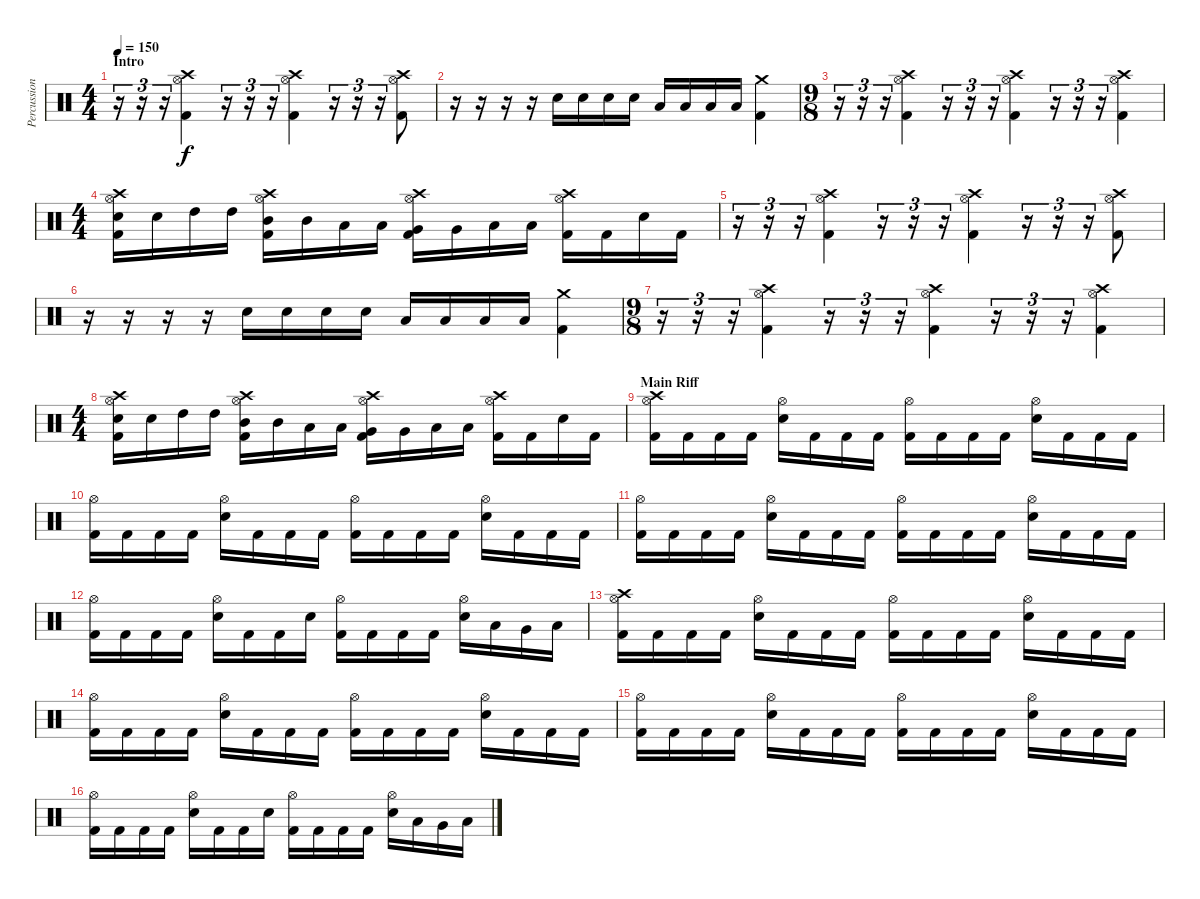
\track ("Percussions" "Percussion") {instrument percussion}
\staff {score}
\articulation defaults
\ts (4 4)
\section ("" "Intro")
\tempo 150
\clef neutral
\ks c
r.16{tu (3 2) dy f} r.16{tu (3 2)} r.16{tu (3 2)} ("Crash high (hit)" "Hi-Hat (open)" "Kick (hit) 2").4 r.16{tu (3 2)} r.16{tu (3 2)} r.16{tu (3 2)} ("Crash high (hit)" "Hi-Hat (open)" "Kick (hit) 2").4 r.16{tu (3 2)} r.16{tu (3 2)} r.16{tu (3 2)} ("Crash high (hit)" "Hi-Hat (open)" "Kick (hit) 2").8 |
r.16 r.16 r.16 r.16 "Electric Snare (hit)".16 "Electric Snare (hit)".16 "Electric Snare (hit)".16 "Electric Snare (hit)".16 "Low Tom (hit)".16 "Low Tom (hit)".16 "Low Tom (hit)".16 "Low Tom (hit)".16 ("Crash medium (hit)" "Kick (hit) 2").4 |
\ts (9 8)
r.16{tu (3 2)} r.16{tu (3 2)} r.16{tu (3 2)} ("Crash high (hit)" "Hi-Hat (open)" "Kick (hit) 2").4 r.16{tu (3 2)} r.16{tu (3 2)} r.16{tu (3 2)} ("Crash high (hit)" "Hi-Hat (open)" "Kick (hit) 2").4 r.16{tu (3 2)} r.16{tu (3 2)} r.16{tu (3 2)} ("Crash high (hit)" "Hi-Hat (open)" "Kick (hit) 2").4 |
\ts (4 4)
("Crash high (hit)" "Hi-Hat (open)" "Electric Snare (hit)" "Kick (hit) 2").16 "Electric Snare (hit)".16 "High Tom (hit)".16 "High Tom (hit)".16 ("Crash high (hit)" "Hi-Hat (open)" "Mid Tom (hit)" "Kick (hit) 2").16 "Mid Tom (hit)".16 "Low Tom (hit)".16 "Low Tom (hit)".16 ("Crash high (hit)" "Hi-Hat (open)" "Very Low Tom (hit)" "Kick (hit) 2").16 "Very Low Tom (hit)".16 "Low Floor Tom (hit)".16 "Low Floor Tom (hit)".16 ("Crash high (hit)" "Hi-Hat (open)" "Kick (hit) 2").16 "Kick (hit) 2".16 "Electric Snare (hit)".16 "Kick (hit) 2".16 |
r.16{tu (3 2)} r.16{tu (3 2)} r.16{tu (3 2)} ("Crash high (hit)" "Hi-Hat (open)" "Kick (hit) 2").4 r.16{tu (3 2)} r.16{tu (3 2)} r.16{tu (3 2)} ("Crash high (hit)" "Hi-Hat (open)" "Kick (hit) 2").4 r.16{tu (3 2)} r.16{tu (3 2)} r.16{tu (3 2)} ("Crash high (hit)" "Hi-Hat (open)" "Kick (hit) 2").8 |
r.16 r.16 r.16 r.16 "Electric Snare (hit)".16 "Electric Snare (hit)".16 "Electric Snare (hit)".16 "Electric Snare (hit)".16 "Low Tom (hit)".16 "Low Tom (hit)".16 "Low Tom (hit)".16 "Low Tom (hit)".16 ("Crash medium (hit)" "Kick (hit) 2").4 |
\ts (9 8)
r.16{tu (3 2)} r.16{tu (3 2)} r.16{tu (3 2)} ("Crash high (hit)" "Hi-Hat (open)" "Kick (hit) 2").4 r.16{tu (3 2)} r.16{tu (3 2)} r.16{tu (3 2)} ("Crash high (hit)" "Hi-Hat (open)" "Kick (hit) 2").4 r.16{tu (3 2)} r.16{tu (3 2)} r.16{tu (3 2)} ("Crash high (hit)" "Hi-Hat (open)" "Kick (hit) 2").4 |
\ts (4 4)
("Crash high (hit)" "Hi-Hat (open)" "Electric Snare (hit)" "Kick (hit) 2").16 "Electric Snare (hit)".16 "High Tom (hit)".16 "High Tom (hit)".16 ("Crash high (hit)" "Hi-Hat (open)" "Mid Tom (hit)" "Kick (hit) 2").16 "Mid Tom (hit)".16 "Low Tom (hit)".16 "Low Tom (hit)".16 ("Crash high (hit)" "Hi-Hat (open)" "Very Low Tom (hit)" "Kick (hit) 2").16 "Very Low Tom (hit)".16 "Low Floor Tom (hit)".16 "Low Floor Tom (hit)".16 ("Crash high (hit)" "Hi-Hat (open)" "Kick (hit) 2").16 "Kick (hit) 2".16 "Electric Snare (hit)".16 "Kick (hit) 2".16 |
\section ("" "Main Riff")
("Crash high (hit)" "Hi-Hat (open)" "Kick (hit) 2").16 "Kick (hit) 2".16 "Kick (hit) 2".16 "Kick (hit) 2".16 ("Hi-Hat (open)" "Electric Snare (hit)").16 "Kick (hit) 2".16 "Kick (hit) 2".16 "Kick (hit) 2".16 ("Hi-Hat (open)" "Kick (hit) 2").16 "Kick (hit) 2".16 "Kick (hit) 2".16 "Kick (hit) 2".16 ("Hi-Hat (open)" "Electric Snare (hit)").16 "Kick (hit) 2".16 "Kick (hit) 2".16 "Kick (hit) 2".16 |
("Hi-Hat (open)" "Kick (hit) 2").16 "Kick (hit) 2".16 "Kick (hit) 2".16 "Kick (hit) 2".16 ("Hi-Hat (open)" "Electric Snare (hit)").16 "Kick (hit) 2".16 "Kick (hit) 2".16 "Kick (hit) 2".16 ("Hi-Hat (open)" "Kick (hit) 2").16 "Kick (hit) 2".16 "Kick (hit) 2".16 "Kick (hit) 2".16 ("Hi-Hat (open)" "Electric Snare (hit)").16 "Kick (hit) 2".16 "Kick (hit) 2".16 "Kick (hit) 2".16 |
("Hi-Hat (open)" "Kick (hit) 2").16 "Kick (hit) 2".16 "Kick (hit) 2".16 "Kick (hit) 2".16 ("Hi-Hat (open)" "Electric Snare (hit)").16 "Kick (hit) 2".16 "Kick (hit) 2".16 "Kick (hit) 2".16 ("Hi-Hat (open)" "Kick (hit) 2").16 "Kick (hit) 2".16 "Kick (hit) 2".16 "Kick (hit) 2".16 ("Hi-Hat (open)" "Electric Snare (hit)").16 "Kick (hit) 2".16 "Kick (hit) 2".16 "Kick (hit) 2".16 |
("Hi-Hat (open)" "Kick (hit) 2").16 "Kick (hit) 2".16 "Kick (hit) 2".16 "Kick (hit) 2".16 ("Hi-Hat (open)" "Electric Snare (hit)").16 "Kick (hit) 2".16 "Kick (hit) 2".16 "Electric Snare (hit)".16 ("Hi-Hat (open)" "Kick (hit) 2").16 "Kick (hit) 2".16 "Kick (hit) 2".16 "Kick (hit) 2".16 ("Hi-Hat (open)" "Electric Snare (hit)").16 "Low Tom (hit)".16 "Very Low Tom (hit)".16 "Low Floor Tom (hit)".16 |
("Crash high (hit)" "Hi-Hat (open)" "Kick (hit) 2").16 "Kick (hit) 2".16 "Kick (hit) 2".16 "Kick (hit) 2".16 ("Hi-Hat (open)" "Electric Snare (hit)").16 "Kick (hit) 2".16 "Kick (hit) 2".16 "Kick (hit) 2".16 ("Hi-Hat (open)" "Kick (hit) 2").16 "Kick (hit) 2".16 "Kick (hit) 2".16 "Kick (hit) 2".16 ("Hi-Hat (open)" "Electric Snare (hit)").16 "Kick (hit) 2".16 "Kick (hit) 2".16 "Kick (hit) 2".16 |
("Hi-Hat (open)" "Kick (hit) 2").16 "Kick (hit) 2".16 "Kick (hit) 2".16 "Kick (hit) 2".16 ("Hi-Hat (open)" "Electric Snare (hit)").16 "Kick (hit) 2".16 "Kick (hit) 2".16 "Kick (hit) 2".16 ("Hi-Hat (open)" "Kick (hit) 2").16 "Kick (hit) 2".16 "Kick (hit) 2".16 "Kick (hit) 2".16 ("Hi-Hat (open)" "Electric Snare (hit)").16 "Kick (hit) 2".16 "Kick (hit) 2".16 "Kick (hit) 2".16 |
("Hi-Hat (open)" "Kick (hit) 2").16 "Kick (hit) 2".16 "Kick (hit) 2".16 "Kick (hit) 2".16 ("Hi-Hat (open)" "Electric Snare (hit)").16 "Kick (hit) 2".16 "Kick (hit) 2".16 "Kick (hit) 2".16 ("Hi-Hat (open)" "Kick (hit) 2").16 "Kick (hit) 2".16 "Kick (hit) 2".16 "Kick (hit) 2".16 ("Hi-Hat (open)" "Electric Snare (hit)").16 "Kick (hit) 2".16 "Kick (hit) 2".16 "Kick (hit) 2".16 |
("Hi-Hat (open)" "Kick (hit) 2").16 "Kick (hit) 2".16 "Kick (hit) 2".16 "Kick (hit) 2".16 ("Hi-Hat (open)" "Electric Snare (hit)").16 "Kick (hit) 2".16 "Kick (hit) 2".16 "Electric Snare (hit)".16 ("Hi-Hat (open)" "Kick (hit) 2").16 "Kick (hit) 2".16 "Kick (hit) 2".16 "Kick (hit) 2".16 ("Hi-Hat (open)" "Electric Snare (hit)").16 "Low Tom (hit)".16 "Very Low Tom (hit)".16 "Low Floor Tom (hit)".16
